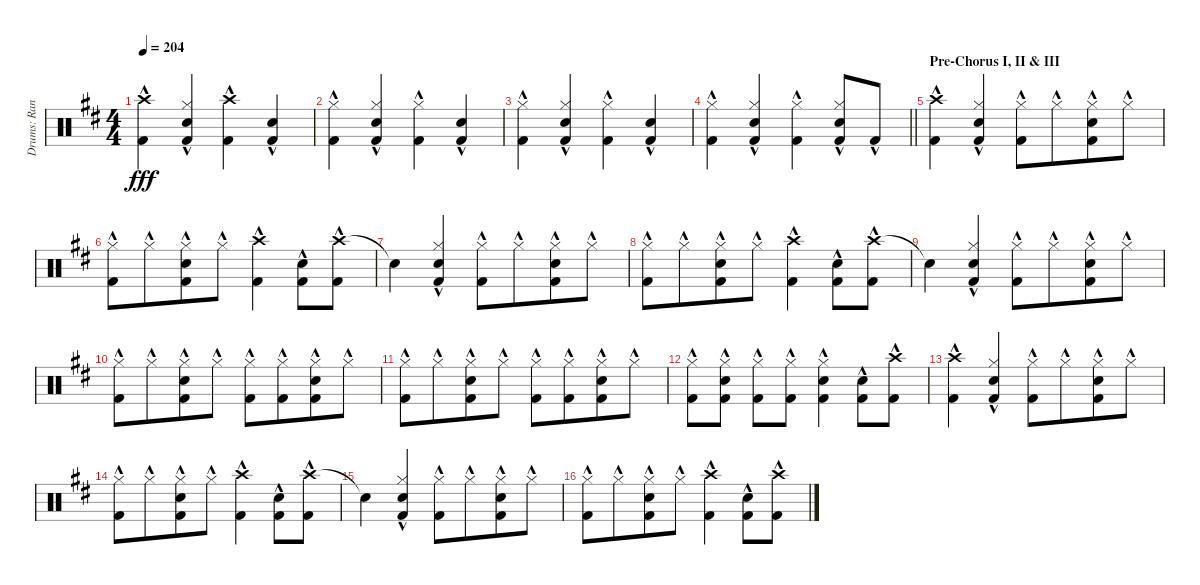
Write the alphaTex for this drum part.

\track ("Drums: Randy" "Drums: Ran") {instrument percussion}
\staff {score}
\articulation defaults
\ts (4 4)
\tempo 204
\clef neutral
\ks d
("Crash high (hit)"{hac} "Kick (hit) 2"{hac}).4{dy fff} ("Hi-Hat (closed)"{hac} "Snare (hit) 2"{hac} "Kick (hit) 2"{hac}).4 ("Crash high (hit)"{hac} "Kick (hit) 2"{hac}).4 ("Snare (hit) 2"{hac} "Kick (hit) 2"{hac}).4 |
("Hi-Hat (closed)"{hac} "Kick (hit) 2"{hac}).4 ("Hi-Hat (closed)"{hac} "Snare (hit) 2"{hac} "Kick (hit) 2"{hac}).4 ("Hi-Hat (closed)"{hac} "Kick (hit) 2"{hac}).4 ("Snare (hit) 2"{hac} "Kick (hit) 2"{hac}).4 |
("Hi-Hat (closed)"{hac} "Kick (hit) 2"{hac}).4 ("Hi-Hat (closed)"{hac} "Snare (hit) 2"{hac} "Kick (hit) 2"{hac}).4 ("Hi-Hat (closed)"{hac} "Kick (hit) 2"{hac}).4 ("Snare (hit) 2"{hac} "Kick (hit) 2"{hac}).4 |
\barLineRight lightlight
("Hi-Hat (closed)"{hac} "Kick (hit) 2"{hac}).4 ("Hi-Hat (closed)"{hac} "Snare (hit) 2"{hac} "Kick (hit) 2"{hac}).4 ("Hi-Hat (closed)"{hac} "Kick (hit) 2"{hac}).4 ("Hi-Hat (closed)"{hac} "Snare (hit) 2"{hac} "Kick (hit) 2"{hac}).8 "Kick (hit) 2"{hac}.8 |
\section ("" "Pre-Chorus I, II & III")
("Crash high (hit)"{hac} "Kick (hit) 2"{hac}).4 ("Hi-Hat (closed)"{hac} "Snare (hit) 2"{hac} "Kick (hit) 2"{hac}).4 ("Hi-Hat (closed)"{hac} "Kick (hit) 2"{hac}).8 "Hi-Hat (closed)"{hac}.8{beam merge} ("Hi-Hat (closed)"{hac} "Snare (hit) 2"{hac} "Kick (hit) 2"{hac}).8 "Hi-Hat (closed)"{hac}.8 |
("Hi-Hat (closed)"{hac} "Kick (hit) 2"{hac}).8 "Hi-Hat (closed)"{hac}.8{beam merge} ("Hi-Hat (closed)"{hac} "Snare (hit) 2"{hac} "Kick (hit) 2"{hac}).8 "Hi-Hat (closed)"{hac}.8 ("Crash high (hit)"{hac} "Kick (hit) 2"{hac}).4 ("Snare (hit) 2"{hac} "Kick (hit) 2"{hac}).8 ("Crash high (hit)"{hac} "Kick (hit) 2"{hac}).8 |
"Snare (hit)"{t}.4 ("Hi-Hat (closed)"{hac} "Snare (hit) 2"{hac} "Kick (hit) 2"{hac}).4 ("Hi-Hat (closed)"{hac} "Kick (hit) 2"{hac}).8 "Hi-Hat (closed)"{hac}.8{beam merge} ("Hi-Hat (closed)"{hac} "Snare (hit) 2"{hac} "Kick (hit) 2"{hac}).8 "Hi-Hat (closed)"{hac}.8 |
("Hi-Hat (closed)"{hac} "Kick (hit) 2"{hac}).8 "Hi-Hat (closed)"{hac}.8{beam merge} ("Hi-Hat (closed)"{hac} "Snare (hit) 2"{hac} "Kick (hit) 2"{hac}).8 "Hi-Hat (closed)"{hac}.8 ("Crash high (hit)"{hac} "Kick (hit) 2"{hac}).4 ("Snare (hit) 2"{hac} "Kick (hit) 2"{hac}).8 ("Crash high (hit)"{hac} "Kick (hit) 2"{hac}).8 |
"Snare (hit)"{t}.4 ("Hi-Hat (closed)"{hac} "Snare (hit) 2"{hac} "Kick (hit) 2"{hac}).4 ("Hi-Hat (closed)"{hac} "Kick (hit) 2"{hac}).8 "Hi-Hat (closed)"{hac}.8{beam merge} ("Hi-Hat (closed)"{hac} "Snare (hit) 2"{hac} "Kick (hit) 2"{hac}).8 "Hi-Hat (closed)"{hac}.8 |
("Hi-Hat (closed)"{hac} "Kick (hit) 2"{hac}).8 "Hi-Hat (closed)"{hac}.8{beam merge} ("Hi-Hat (closed)"{hac} "Snare (hit) 2"{hac} "Kick (hit) 2"{hac}).8 "Hi-Hat (closed)"{hac}.8 ("Hi-Hat (closed)"{hac} "Kick (hit) 2"{hac}).8 ("Hi-Hat (closed)"{hac} "Kick (hit) 2"{hac}).8{beam merge} ("Hi-Hat (closed)"{hac} "Snare (hit) 2"{hac} "Kick (hit) 2"{hac}).8 "Hi-Hat (closed)"{hac}.8 |
("Hi-Hat (closed)"{hac} "Kick (hit) 2"{hac}).8 "Hi-Hat (closed)"{hac}.8{beam merge} ("Hi-Hat (closed)"{hac} "Snare (hit) 2"{hac} "Kick (hit) 2"{hac}).8 "Hi-Hat (closed)"{hac}.8 ("Hi-Hat (closed)"{hac} "Kick (hit) 2"{hac}).8 ("Hi-Hat (closed)"{hac} "Kick (hit) 2"{hac}).8{beam merge} ("Hi-Hat (closed)"{hac} "Snare (hit) 2"{hac} "Kick (hit) 2"{hac}).8 "Hi-Hat (closed)"{hac}.8 |
("Hi-Hat (closed)"{hac} "Kick (hit) 2"{hac}).8{beam merge} ("Hi-Hat (closed)"{hac} "Snare (hit) 2"{hac} "Kick (hit) 2"{hac}).8 ("Hi-Hat (closed)"{hac} "Kick (hit) 2"{hac}).8 ("Hi-Hat (closed)"{hac} "Kick (hit) 2"{hac}).8{beam merge} ("Hi-Hat (closed)"{hac} "Snare (hit) 2"{hac} "Kick (hit) 2"{hac}).4 ("Snare (hit) 2"{hac} "Kick (hit) 2"{hac}).8 ("Crash high (hit)"{hac} "Kick (hit) 2"{hac}).8 |
("Crash high (hit)"{hac} "Kick (hit) 2"{hac}).4 ("Hi-Hat (closed)"{hac} "Snare (hit) 2"{hac} "Kick (hit) 2"{hac}).4 ("Hi-Hat (closed)"{hac} "Kick (hit) 2"{hac}).8 "Hi-Hat (closed)"{hac}.8{beam merge} ("Hi-Hat (closed)"{hac} "Snare (hit) 2"{hac} "Kick (hit) 2"{hac}).8 "Hi-Hat (closed)"{hac}.8 |
("Hi-Hat (closed)"{hac} "Kick (hit) 2"{hac}).8 "Hi-Hat (closed)"{hac}.8{beam merge} ("Hi-Hat (closed)"{hac} "Snare (hit) 2"{hac} "Kick (hit) 2"{hac}).8 "Hi-Hat (closed)"{hac}.8 ("Crash high (hit)"{hac} "Kick (hit) 2"{hac}).4 ("Snare (hit) 2"{hac} "Kick (hit) 2"{hac}).8 ("Crash high (hit)"{hac} "Kick (hit) 2"{hac}).8 |
"Snare (hit)"{t}.4 ("Hi-Hat (closed)"{hac} "Snare (hit) 2"{hac} "Kick (hit) 2"{hac}).4 ("Hi-Hat (closed)"{hac} "Kick (hit) 2"{hac}).8 "Hi-Hat (closed)"{hac}.8{beam merge} ("Hi-Hat (closed)"{hac} "Snare (hit) 2"{hac} "Kick (hit) 2"{hac}).8 "Hi-Hat (closed)"{hac}.8 |
("Hi-Hat (closed)"{hac} "Kick (hit) 2"{hac}).8 "Hi-Hat (closed)"{hac}.8{beam merge} ("Hi-Hat (closed)"{hac} "Snare (hit) 2"{hac} "Kick (hit) 2"{hac}).8 "Hi-Hat (closed)"{hac}.8 ("Crash high (hit)"{hac} "Kick (hit) 2"{hac}).4 ("Snare (hit) 2"{hac} "Kick (hit) 2"{hac}).8 ("Crash high (hit)"{hac} "Kick (hit) 2"{hac}).8
